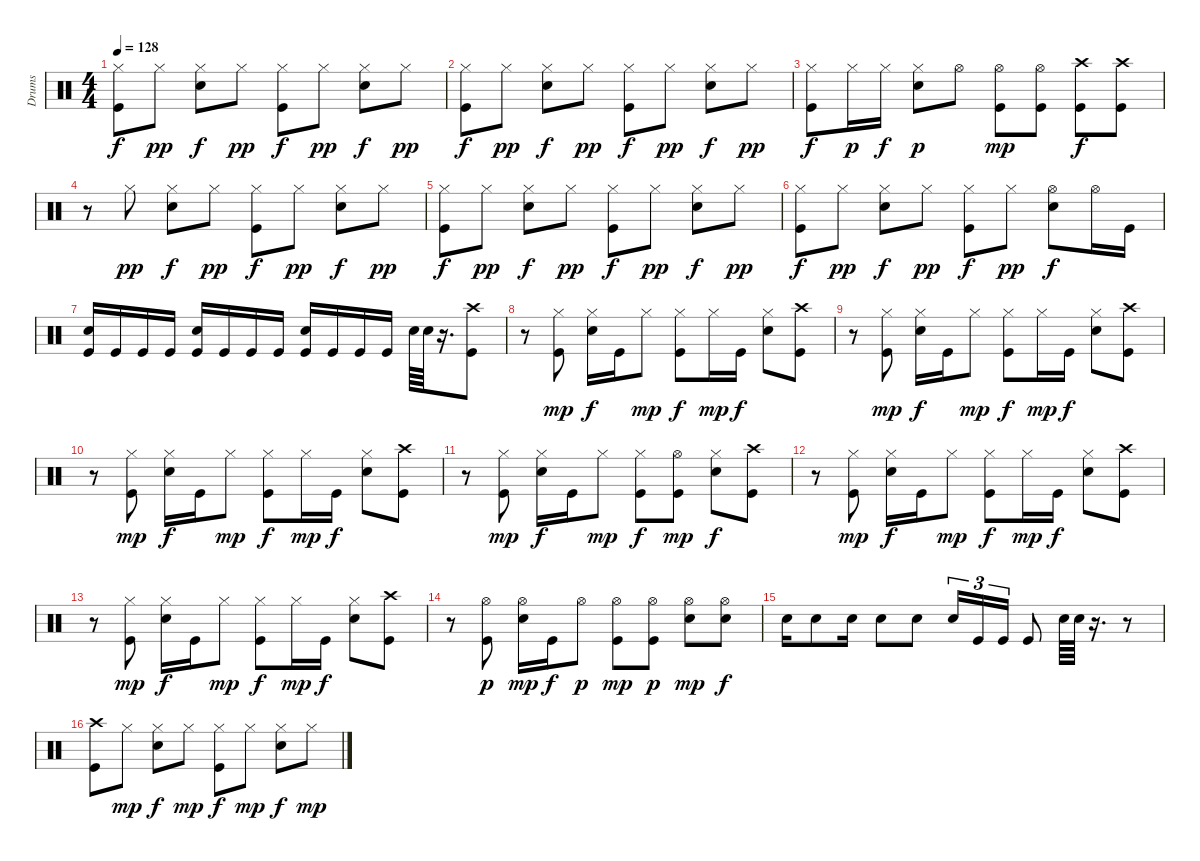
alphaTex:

\track ("Drums" "Drums") {instrument percussion}
\staff {score}
\articulation defaults
\ts (4 4)
\tempo 128
\clef neutral
\ks c
("Hi-Hat (closed)" "Kick (hit)").8{dy f} "Hi-Hat (closed)".8{dy pp} ("Hi-Hat (closed)" "Snare (hit) 2").8{dy f} "Hi-Hat (closed)".8{dy pp} ("Hi-Hat (closed)" "Kick (hit)").8{dy f} "Hi-Hat (closed)".8{dy pp} ("Hi-Hat (closed)" "Snare (hit) 2").8{dy f} "Hi-Hat (closed)".8{dy pp} |
("Hi-Hat (closed)" "Kick (hit)").8{dy f} "Hi-Hat (closed)".8{dy pp} ("Hi-Hat (closed)" "Snare (hit) 2").8{dy f} "Hi-Hat (closed)".8{dy pp} ("Hi-Hat (closed)" "Kick (hit)").8{dy f} "Hi-Hat (closed)".8{dy pp} ("Hi-Hat (closed)" "Snare (hit) 2").8{dy f} "Hi-Hat (closed)".8{dy pp} |
("Hi-Hat (closed)" "Kick (hit)").8{dy f} "Hi-Hat (closed)".16{dy p} "Hi-Hat (closed)".16{dy f} ("Hi-Hat (closed)" "Snare (hit) 2").8{dy p} "Hi-Hat (open)".8 ("Hi-Hat (open)" "Kick (hit)").8{dy mp} ("Hi-Hat (open)" "Kick (hit)").8 ("Crash high (hit)" "Kick (hit)").8{dy f} ("Crash high (hit)" "Kick (hit)").8 |
r.8 "Hi-Hat (closed)".8{dy pp} ("Hi-Hat (closed)" "Snare (hit) 2").8{dy f} "Hi-Hat (closed)".8{dy pp} ("Hi-Hat (closed)" "Kick (hit)").8{dy f} "Hi-Hat (closed)".8{dy pp} ("Hi-Hat (closed)" "Snare (hit) 2").8{dy f} "Hi-Hat (closed)".8{dy pp} |
("Hi-Hat (closed)" "Kick (hit)").8{dy f} "Hi-Hat (closed)".8{dy pp} ("Hi-Hat (closed)" "Snare (hit) 2").8{dy f} "Hi-Hat (closed)".8{dy pp} ("Hi-Hat (closed)" "Kick (hit)").8{dy f} "Hi-Hat (closed)".8{dy pp} ("Hi-Hat (closed)" "Snare (hit) 2").8{dy f} "Hi-Hat (closed)".8{dy pp} |
("Hi-Hat (closed)" "Kick (hit)").8{dy f} "Hi-Hat (closed)".8{dy pp} ("Hi-Hat (closed)" "Snare (hit) 2").8{dy f} "Hi-Hat (closed)".8{dy pp} ("Hi-Hat (closed)" "Kick (hit)").8{dy f} "Hi-Hat (closed)".8{dy pp} ("Hi-Hat (open)" "Snare (hit) 2").8{dy f} "Hi-Hat (open)".16 "Kick (hit)".16 |
("Snare (hit) 2" "Kick (hit)").16 "Kick (hit)".16 "Kick (hit)".16 "Kick (hit)".16 ("Snare (hit) 2" "Kick (hit)").16 "Kick (hit)".16 "Kick (hit)".16 "Kick (hit)".16 ("Snare (hit) 2" "Kick (hit)").16 "Kick (hit)".16 "Kick (hit)".16 "Kick (hit)".16 "Snare (hit) 2".64 "Snare (hit) 2".64 r.16{d} ("Crash high (hit)" "Kick (hit)").8 |
r.8 ("Hi-Hat (closed)" "Kick (hit)").8{dy mp} ("Hi-Hat (closed)" "Snare (hit) 2").16{dy f} "Kick (hit)".16 "Hi-Hat (closed)".8{dy mp} ("Hi-Hat (closed)" "Kick (hit)").8{dy f} "Hi-Hat (closed)".16{dy mp} "Kick (hit)".16{dy f} ("Hi-Hat (closed)" "Snare (hit) 2").8 ("Crash high (hit)" "Kick (hit)").8 |
r.8 ("Hi-Hat (closed)" "Kick (hit)").8{dy mp} ("Hi-Hat (closed)" "Snare (hit) 2").16{dy f} "Kick (hit)".16 "Hi-Hat (closed)".8{dy mp} ("Hi-Hat (closed)" "Kick (hit)").8{dy f} "Hi-Hat (closed)".16{dy mp} "Kick (hit)".16{dy f} ("Hi-Hat (closed)" "Snare (hit) 2").8 ("Crash high (hit)" "Kick (hit)").8 |
r.8 ("Hi-Hat (closed)" "Kick (hit)").8{dy mp} ("Hi-Hat (closed)" "Snare (hit) 2").16{dy f} "Kick (hit)".16 "Hi-Hat (closed)".8{dy mp} ("Hi-Hat (closed)" "Kick (hit)").8{dy f} "Hi-Hat (closed)".16{dy mp} "Kick (hit)".16{dy f} ("Hi-Hat (closed)" "Snare (hit) 2").8 ("Crash high (hit)" "Kick (hit)").8 |
r.8 ("Hi-Hat (closed)" "Kick (hit)").8{dy mp} ("Hi-Hat (closed)" "Snare (hit) 2").16{dy f} "Kick (hit)".16 "Hi-Hat (closed)".8{dy mp} ("Hi-Hat (closed)" "Kick (hit)").8{dy f} ("Hi-Hat (open)" "Kick (hit)").8{dy mp} ("Hi-Hat (closed)" "Snare (hit) 2").8{dy f} ("Crash high (hit)" "Kick (hit)").8 |
r.8 ("Hi-Hat (closed)" "Kick (hit)").8{dy mp} ("Hi-Hat (closed)" "Snare (hit) 2").16{dy f} "Kick (hit)".16 "Hi-Hat (closed)".8{dy mp} ("Hi-Hat (closed)" "Kick (hit)").8{dy f} "Hi-Hat (closed)".16{dy mp} "Kick (hit)".16{dy f} ("Hi-Hat (closed)" "Snare (hit) 2").8 ("Crash high (hit)" "Kick (hit)").8 |
r.8 ("Hi-Hat (closed)" "Kick (hit)").8{dy mp} ("Hi-Hat (closed)" "Snare (hit) 2").16{dy f} "Kick (hit)".16 "Hi-Hat (closed)".8{dy mp} ("Hi-Hat (closed)" "Kick (hit)").8{dy f} "Hi-Hat (closed)".16{dy mp} "Kick (hit)".16{dy f} ("Hi-Hat (closed)" "Snare (hit) 2").8 ("Crash high (hit)" "Kick (hit)").8 |
r.8 ("Hi-Hat (open)" "Kick (hit)").8{dy p} ("Hi-Hat (open)" "Snare (hit) 2").16{dy mp} "Kick (hit)".16{dy f} "Hi-Hat (open)".8{dy p} ("Hi-Hat (open)" "Kick (hit)").8{dy mp} ("Hi-Hat (open)" "Kick (hit)").8{dy p} ("Hi-Hat (open)" "Snare (hit) 2").8{dy mp} ("Hi-Hat (open)" "Snare (hit) 2").8{dy f} |
"Snare (hit) 2".16 "Snare (hit) 2".8 "Snare (hit) 2".16 "Snare (hit) 2".8 "Snare (hit) 2".8 "Snare (hit) 2".16{tu (3 2)} "Kick (hit)".16{tu (3 2)} "Kick (hit)".16{tu (3 2)} "Kick (hit)".8 "Snare (hit) 2".64 "Snare (hit) 2".64 r.16{d} r.8 |
("Crash high (hit)" "Kick (hit)").8 "Hi-Hat (closed)".8{dy mp} ("Hi-Hat (closed)" "Snare (hit) 2").8{dy f} "Hi-Hat (closed)".8{dy mp} ("Hi-Hat (closed)" "Kick (hit)").8{dy f} "Hi-Hat (closed)".8{dy mp} ("Hi-Hat (closed)" "Snare (hit) 2").8{dy f} "Hi-Hat (closed)".8{dy mp}
